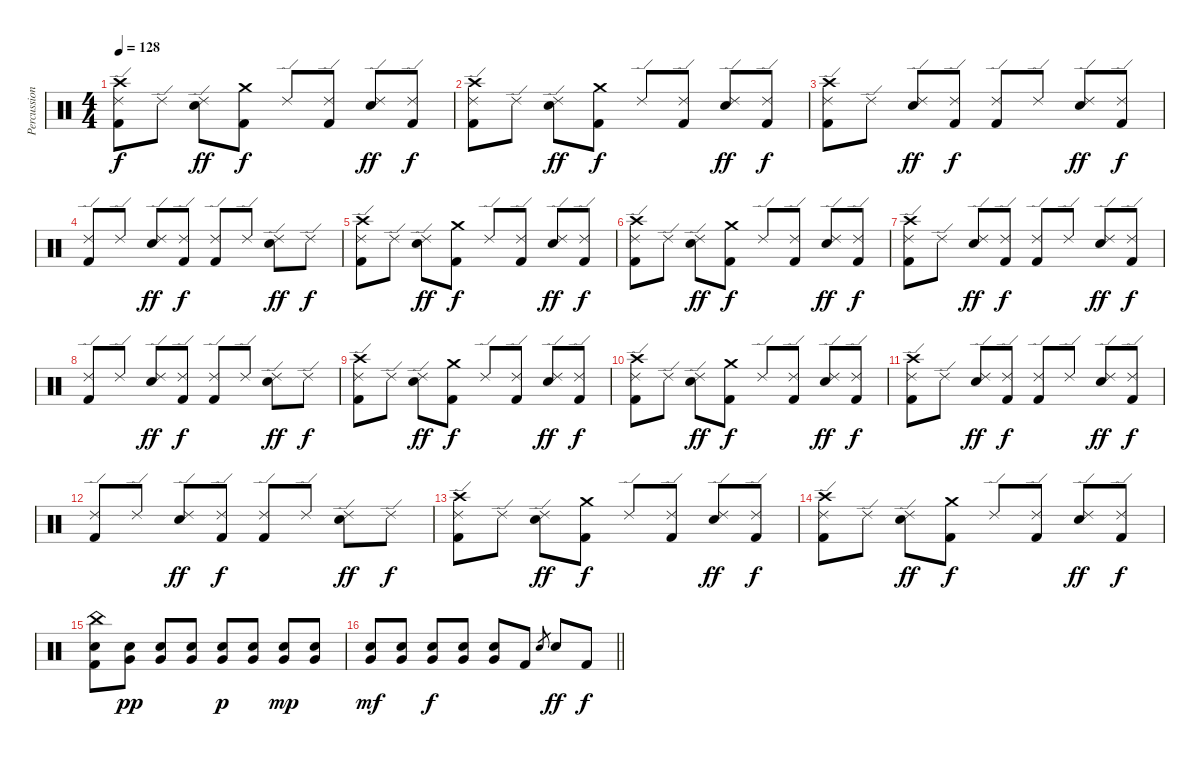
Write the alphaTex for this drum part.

\track ("Percussion" "Percussion") {instrument percussion}
\staff {score}
\articulation defaults
\ts (4 4)
\tempo 128
\clef neutral
\ks c
("Crash high (hit)" "Ride (edge) 2" "Kick (hit) 2").8{dy f} "Ride (edge) 2".8 ("Ride (edge) 2" "Snare (hit) 2").8{dy ff} ("Crash medium (hit)" "Kick (hit) 2").8{dy f} "Ride (edge) 2".8 ("Ride (edge) 2" "Kick (hit) 2").8 ("Ride (edge) 2" "Snare (hit) 2").8{dy ff} ("Ride (edge) 2" "Kick (hit) 2").8{dy f} |
("Crash high (hit)" "Ride (edge) 2" "Kick (hit) 2").8 "Ride (edge) 2".8 ("Ride (edge) 2" "Snare (hit) 2").8{dy ff} ("Crash medium (hit)" "Kick (hit) 2").8{dy f} "Ride (edge) 2".8 ("Ride (edge) 2" "Kick (hit) 2").8 ("Ride (edge) 2" "Snare (hit) 2").8{dy ff} ("Ride (edge) 2" "Kick (hit) 2").8{dy f} |
("Crash high (hit)" "Ride (edge) 2" "Kick (hit) 2").8 "Ride (edge) 2".8 ("Ride (edge) 2" "Snare (hit) 2").8{dy ff} ("Ride (edge) 2" "Kick (hit) 2").8{dy f} ("Ride (edge) 2" "Kick (hit) 2").8 "Ride (edge) 2".8 ("Ride (edge) 2" "Snare (hit) 2").8{dy ff} ("Ride (edge) 2" "Kick (hit) 2").8{dy f} |
("Ride (edge) 2" "Kick (hit) 2").8 "Ride (edge) 2".8 ("Ride (edge) 2" "Snare (hit) 2").8{dy ff} ("Ride (edge) 2" "Kick (hit) 2").8{dy f} ("Ride (edge) 2" "Kick (hit) 2").8 "Ride (edge) 2".8 ("Ride (edge) 2" "Snare (hit) 2").8{dy ff} "Ride (edge) 2".8{dy f} |
("Crash high (hit)" "Ride (edge) 2" "Kick (hit) 2").8 "Ride (edge) 2".8 ("Ride (edge) 2" "Snare (hit) 2").8{dy ff} ("Crash medium (hit)" "Kick (hit) 2").8{dy f} "Ride (edge) 2".8 ("Ride (edge) 2" "Kick (hit) 2").8 ("Ride (edge) 2" "Snare (hit) 2").8{dy ff} ("Ride (edge) 2" "Kick (hit) 2").8{dy f} |
("Crash high (hit)" "Ride (edge) 2" "Kick (hit) 2").8 "Ride (edge) 2".8 ("Ride (edge) 2" "Snare (hit) 2").8{dy ff} ("Crash medium (hit)" "Kick (hit) 2").8{dy f} "Ride (edge) 2".8 ("Ride (edge) 2" "Kick (hit) 2").8 ("Ride (edge) 2" "Snare (hit) 2").8{dy ff} ("Ride (edge) 2" "Kick (hit) 2").8{dy f} |
("Crash high (hit)" "Ride (edge) 2" "Kick (hit) 2").8 "Ride (edge) 2".8 ("Ride (edge) 2" "Snare (hit) 2").8{dy ff} ("Ride (edge) 2" "Kick (hit) 2").8{dy f} ("Ride (edge) 2" "Kick (hit) 2").8 "Ride (edge) 2".8 ("Ride (edge) 2" "Snare (hit) 2").8{dy ff} ("Ride (edge) 2" "Kick (hit) 2").8{dy f} |
("Ride (edge) 2" "Kick (hit) 2").8 "Ride (edge) 2".8 ("Ride (edge) 2" "Snare (hit) 2").8{dy ff} ("Ride (edge) 2" "Kick (hit) 2").8{dy f} ("Ride (edge) 2" "Kick (hit) 2").8 "Ride (edge) 2".8 ("Ride (edge) 2" "Snare (hit) 2").8{dy ff} "Ride (edge) 2".8{dy f} |
("Crash high (hit)" "Ride (edge) 2" "Kick (hit) 2").8 "Ride (edge) 2".8 ("Ride (edge) 2" "Snare (hit) 2").8{dy ff} ("Crash medium (hit)" "Kick (hit) 2").8{dy f} "Ride (edge) 2".8 ("Ride (edge) 2" "Kick (hit) 2").8 ("Ride (edge) 2" "Snare (hit) 2").8{dy ff} ("Ride (edge) 2" "Kick (hit) 2").8{dy f} |
("Crash high (hit)" "Ride (edge) 2" "Kick (hit) 2").8 "Ride (edge) 2".8 ("Ride (edge) 2" "Snare (hit) 2").8{dy ff} ("Crash medium (hit)" "Kick (hit) 2").8{dy f} "Ride (edge) 2".8 ("Ride (edge) 2" "Kick (hit) 2").8 ("Ride (edge) 2" "Snare (hit) 2").8{dy ff} ("Ride (edge) 2" "Kick (hit) 2").8{dy f} |
("Crash high (hit)" "Ride (edge) 2" "Kick (hit) 2").8 "Ride (edge) 2".8 ("Ride (edge) 2" "Snare (hit) 2").8{dy ff} ("Ride (edge) 2" "Kick (hit) 2").8{dy f} ("Ride (edge) 2" "Kick (hit) 2").8 "Ride (edge) 2".8 ("Ride (edge) 2" "Snare (hit) 2").8{dy ff} ("Ride (edge) 2" "Kick (hit) 2").8{dy f} |
("Ride (edge) 2" "Kick (hit) 2").8 "Ride (edge) 2".8 ("Ride (edge) 2" "Snare (hit) 2").8{dy ff} ("Ride (edge) 2" "Kick (hit) 2").8{dy f} ("Ride (edge) 2" "Kick (hit) 2").8 "Ride (edge) 2".8 ("Ride (edge) 2" "Snare (hit) 2").8{dy ff} "Ride (edge) 2".8{dy f} |
("Crash high (hit)" "Ride (edge) 2" "Kick (hit) 2").8 "Ride (edge) 2".8 ("Ride (edge) 2" "Snare (hit) 2").8{dy ff} ("Crash medium (hit)" "Kick (hit) 2").8{dy f} "Ride (edge) 2".8 ("Ride (edge) 2" "Kick (hit) 2").8 ("Ride (edge) 2" "Snare (hit) 2").8{dy ff} ("Ride (edge) 2" "Kick (hit) 2").8{dy f} |
("Crash high (hit)" "Ride (edge) 2" "Kick (hit) 2").8 "Ride (edge) 2".8 ("Ride (edge) 2" "Snare (hit) 2").8{dy ff} ("Crash medium (hit)" "Kick (hit) 2").8{dy f} "Ride (edge) 2".8 ("Ride (edge) 2" "Kick (hit) 2").8 ("Ride (edge) 2" "Snare (hit) 2").8{dy ff} ("Ride (edge) 2" "Kick (hit) 2").8{dy f} |
("China (hit)" "Snare (hit) 2" "Kick (hit) 2").8 ("Very Low Tom (hit)" "Snare (hit) 2").8{dy pp} ("Very Low Tom (hit)" "Snare (hit) 2").8 ("Very Low Tom (hit)" "Snare (hit) 2").8 ("Very Low Tom (hit)" "Snare (hit) 2").8{dy p} ("Very Low Tom (hit)" "Snare (hit) 2").8 ("Very Low Tom (hit)" "Snare (hit) 2").8{dy mp} ("Very Low Tom (hit)" "Snare (hit) 2").8 |
\barLineRight lightlight
("Very Low Tom (hit)" "Snare (hit) 2").8{dy mf} ("Very Low Tom (hit)" "Snare (hit) 2").8 ("Very Low Tom (hit)" "Snare (hit) 2").8{dy f} ("Very Low Tom (hit)" "Snare (hit) 2").8 ("Very Low Tom (hit)" "Snare (hit) 2").8 "Kick (hit) 2".8 "Snare (hit) 2".8{gr} "Snare (hit) 2".8{dy ff} "Kick (hit) 2".8{dy f}
